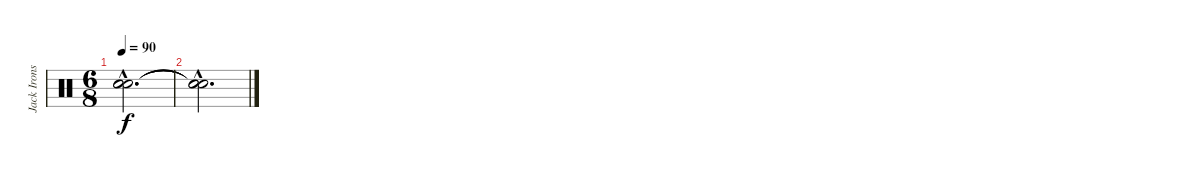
\track ("Jack Irons" "Jack Irons") {instrument percussion}
\staff {score}
\articulation defaults
\ts (6 8)
\tempo 90
\clef neutral
\ks c
("Snare (hit)"{hac t} "Snare (hit)"{hac t} "Snare (hit)"{hac t}).2{d dy f} |
("Snare (hit)"{hac t} "Snare (hit)"{hac t} "Snare (hit)"{hac t}).2{d}
